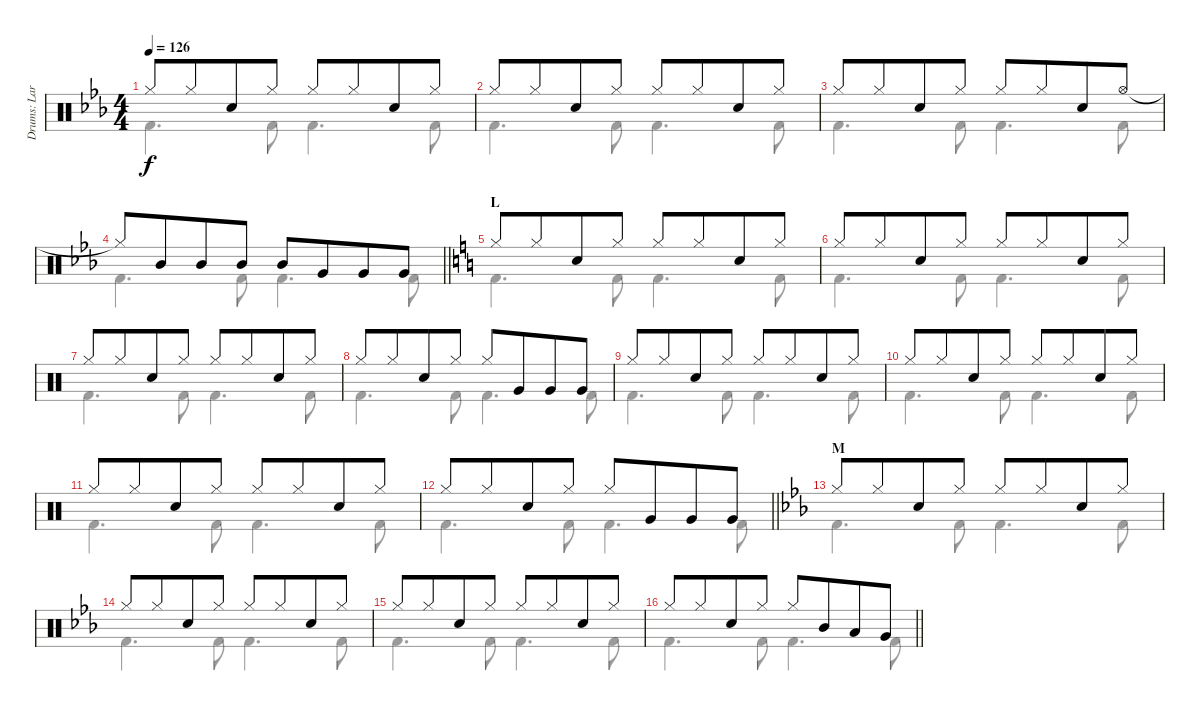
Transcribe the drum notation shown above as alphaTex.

\track ("Drums: Larrie" "Drums: Lar") {instrument percussion}
\staff {score}
\articulation defaults
\voice
\ts (4 4)
\tempo 126
\clef neutral
\ks eb "Hi-Hat (closed)".8{dy f} "Hi-Hat (closed)".8{beam merge} "Snare (hit) 2".8 "Hi-Hat (closed)".8 "Hi-Hat (closed)".8 "Hi-Hat (closed)".8{beam merge} "Snare (hit) 2".8 "Hi-Hat (closed)".8
|
"Hi-Hat (closed)".8 "Hi-Hat (closed)".8{beam merge} "Snare (hit) 2".8 "Hi-Hat (closed)".8 "Hi-Hat (closed)".8 "Hi-Hat (closed)".8{beam merge} "Snare (hit) 2".8 "Hi-Hat (closed)".8 |
"Hi-Hat (closed)".8 "Hi-Hat (closed)".8{beam merge} "Snare (hit) 2".8 "Hi-Hat (closed)".8 "Hi-Hat (closed)".8 "Hi-Hat (closed)".8{beam merge} "Snare (hit) 2".8 "Hi-Hat (open)".8 |
\barLineRight lightlight "Hi-Hat (closed)"{t}.8 "Mid Tom (hit)".8{beam merge} "Mid Tom (hit)".8 "Mid Tom (hit)".8 "Mid Tom (hit)".8 "Very Low Tom (hit)".8{beam merge} "Very Low Tom (hit)".8 "Very Low Tom (hit)".8
|
\section ("" "L")
\ks c "Hi-Hat (closed)".8 "Hi-Hat (closed)".8{beam merge} "Snare (hit) 2".8 "Hi-Hat (closed)".8 "Hi-Hat (closed)".8 "Hi-Hat (closed)".8{beam merge} "Snare (hit) 2".8 "Hi-Hat (closed)".8
|
"Hi-Hat (closed)".8 "Hi-Hat (closed)".8{beam merge} "Snare (hit) 2".8 "Hi-Hat (closed)".8 "Hi-Hat (closed)".8 "Hi-Hat (closed)".8{beam merge} "Snare (hit) 2".8 "Hi-Hat (closed)".8 |
"Hi-Hat (closed)".8 "Hi-Hat (closed)".8{beam merge} "Snare (hit) 2".8 "Hi-Hat (closed)".8 "Hi-Hat (closed)".8 "Hi-Hat (closed)".8{beam merge} "Snare (hit) 2".8 "Hi-Hat (closed)".8 |
"Hi-Hat (closed)".8 "Hi-Hat (closed)".8{beam merge} "Snare (hit) 2".8 "Hi-Hat (closed)".8 "Hi-Hat (closed)".8 "Very Low Tom (hit)".8{beam merge} "Very Low Tom (hit)".8 "Very Low Tom (hit)".8 |
"Hi-Hat (closed)".8 "Hi-Hat (closed)".8{beam merge} "Snare (hit) 2".8 "Hi-Hat (closed)".8 "Hi-Hat (closed)".8 "Hi-Hat (closed)".8{beam merge} "Snare (hit) 2".8 "Hi-Hat (closed)".8 |
"Hi-Hat (closed)".8 "Hi-Hat (closed)".8{beam merge} "Snare (hit) 2".8 "Hi-Hat (closed)".8 "Hi-Hat (closed)".8 "Hi-Hat (closed)".8{beam merge} "Snare (hit) 2".8 "Hi-Hat (closed)".8 |
"Hi-Hat (closed)".8 "Hi-Hat (closed)".8{beam merge} "Snare (hit) 2".8 "Hi-Hat (closed)".8 "Hi-Hat (closed)".8 "Hi-Hat (closed)".8{beam merge} "Snare (hit) 2".8 "Hi-Hat (closed)".8 |
\barLineRight lightlight "Hi-Hat (closed)".8 "Hi-Hat (closed)".8{beam merge} "Snare (hit) 2".8 "Hi-Hat (closed)".8 "Hi-Hat (closed)".8 "Very Low Tom (hit)".8{beam merge} "Very Low Tom (hit)".8 "Very Low Tom (hit)".8
|
\section ("" "M")
\ks eb "Hi-Hat (closed)".8 "Hi-Hat (closed)".8{beam merge} "Snare (hit) 2".8 "Hi-Hat (closed)".8 "Hi-Hat (closed)".8 "Hi-Hat (closed)".8{beam merge} "Snare (hit) 2".8 "Hi-Hat (closed)".8
|
"Hi-Hat (closed)".8 "Hi-Hat (closed)".8{beam merge} "Snare (hit) 2".8 "Hi-Hat (closed)".8 "Hi-Hat (closed)".8 "Hi-Hat (closed)".8{beam merge} "Snare (hit) 2".8 "Hi-Hat (closed)".8 |
"Hi-Hat (closed)".8 "Hi-Hat (closed)".8{beam merge} "Snare (hit) 2".8 "Hi-Hat (closed)".8 "Hi-Hat (closed)".8 "Hi-Hat (closed)".8{beam merge} "Snare (hit) 2".8 "Hi-Hat (closed)".8 |
\barLineRight lightlight "Hi-Hat (closed)".8 "Hi-Hat (closed)".8{beam merge} "Snare (hit) 2".8 "Hi-Hat (closed)".8 "Hi-Hat (closed)".8 "Mid Tom (hit)".8{beam merge} "Low Tom (hit)".8 "Very Low Tom (hit)".8
\voice
\clef neutral
\ottava regular
\simile none
\ks eb "Kick (hit) 2".4{d dy f} "Kick (hit) 2".8 "Kick (hit) 2".4{d} "Kick (hit) 2".8
|
"Kick (hit) 2".4{d} "Kick (hit) 2".8 "Kick (hit) 2".4{d} "Kick (hit) 2".8 |
"Kick (hit) 2".4{d} "Kick (hit) 2".8 "Kick (hit) 2".4{d} "Kick (hit) 2".8 |
\barLineRight lightlight "Kick (hit) 2".4{d} "Kick (hit) 2".8 "Kick (hit) 2".4{d} "Kick (hit) 2".8
|
\ks c "Kick (hit) 2".4{d} "Kick (hit) 2".8 "Kick (hit) 2".4{d} "Kick (hit) 2".8
|
"Kick (hit) 2".4{d} "Kick (hit) 2".8 "Kick (hit) 2".4{d} "Kick (hit) 2".8 |
"Kick (hit) 2".4{d} "Kick (hit) 2".8 "Kick (hit) 2".4{d} "Kick (hit) 2".8 |
"Kick (hit) 2".4{d} "Kick (hit) 2".8 "Kick (hit) 2".4{d} "Kick (hit) 2".8 |
"Kick (hit) 2".4{d} "Kick (hit) 2".8 "Kick (hit) 2".4{d} "Kick (hit) 2".8 |
"Kick (hit) 2".4{d} "Kick (hit) 2".8 "Kick (hit) 2".4{d} "Kick (hit) 2".8 |
"Kick (hit) 2".4{d} "Kick (hit) 2".8 "Kick (hit) 2".4{d} "Kick (hit) 2".8 |
\barLineRight lightlight "Kick (hit) 2".4{d} "Kick (hit) 2".8 "Kick (hit) 2".4{d} "Kick (hit) 2".8
|
\ks eb "Kick (hit) 2".4{d} "Kick (hit) 2".8 "Kick (hit) 2".4{d} "Kick (hit) 2".8
|
"Kick (hit) 2".4{d} "Kick (hit) 2".8 "Kick (hit) 2".4{d} "Kick (hit) 2".8 |
"Kick (hit) 2".4{d} "Kick (hit) 2".8 "Kick (hit) 2".4{d} "Kick (hit) 2".8 |
\barLineRight lightlight "Kick (hit) 2".4{d} "Kick (hit) 2".8 "Kick (hit) 2".4{d} "Kick (hit) 2".8
